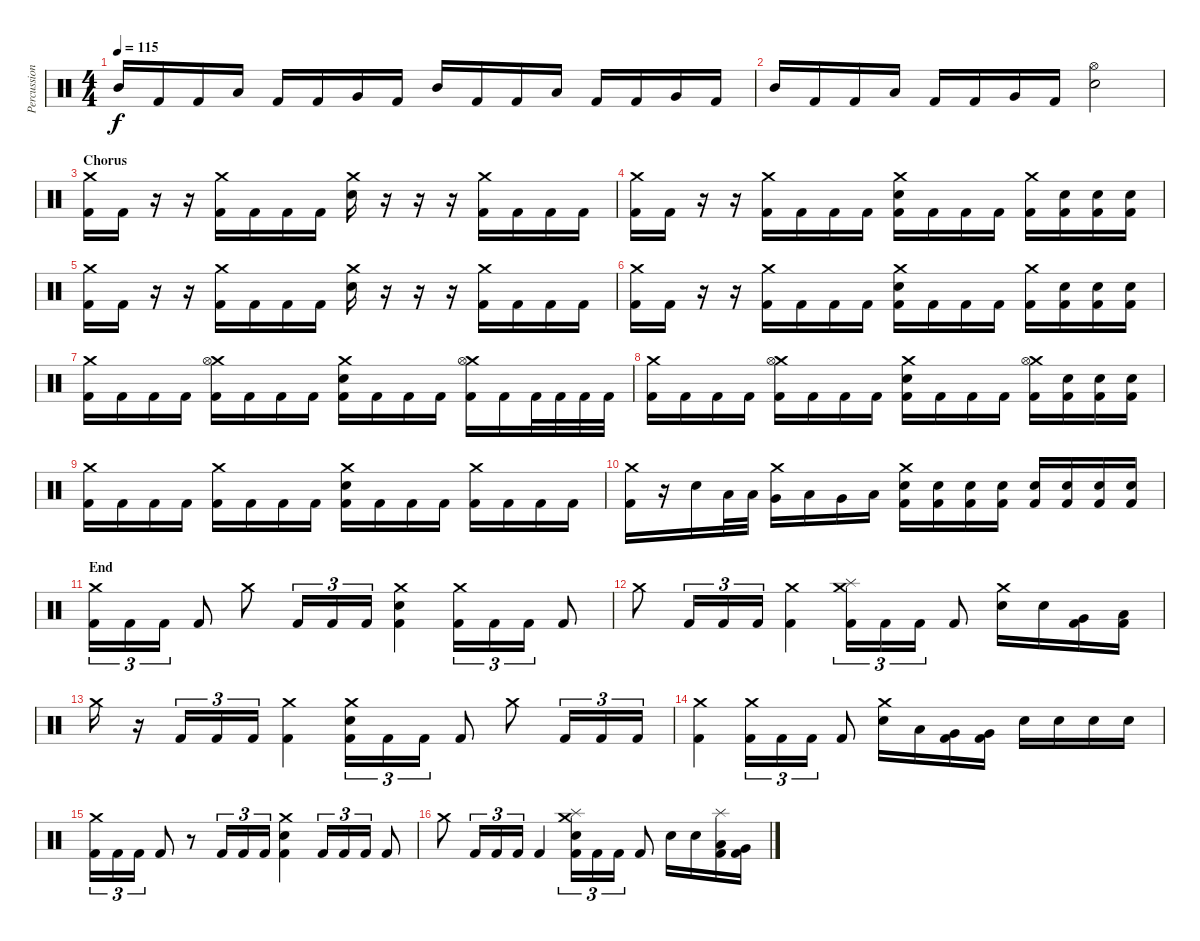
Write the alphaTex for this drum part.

\track ("Percussion" "Percussion") {instrument percussion}
\staff {score}
\articulation defaults
\ts (4 4)
\tempo 115
\clef neutral
\ks c "Mid Tom (hit)".16{dy f} "Kick (hit) 2".16 "Kick (hit) 2".16 "Low Tom (hit)".16 "Kick (hit) 2".16 "Kick (hit) 2".16 "Very Low Tom (hit)".16 "Kick (hit) 2".16 "Mid Tom (hit)".16 "Kick (hit) 2".16 "Kick (hit) 2".16 "Low Tom (hit)".16 "Kick (hit) 2".16 "Kick (hit) 2".16 "Very Low Tom (hit)".16 "Kick (hit) 2".16
|
"Mid Tom (hit)".16 "Kick (hit) 2".16 "Kick (hit) 2".16 "Low Tom (hit)".16 "Kick (hit) 2".16 "Kick (hit) 2".16 "Very Low Tom (hit)".16 "Kick (hit) 2".16 ("Hi-Hat (open)" "Electric Snare (hit)").2 |
\section ("" "Chorus")
("Crash medium (hit)" "Kick (hit) 2").16 "Kick (hit) 2".16 r.16 r.16 ("Crash medium (hit)" "Kick (hit) 2").16 "Kick (hit) 2".16 "Kick (hit) 2".16 "Kick (hit) 2".16 ("Crash medium (hit)" "Electric Snare (hit)").16 r.16 r.16 r.16 ("Crash medium (hit)" "Kick (hit) 2").16 "Kick (hit) 2".16 "Kick (hit) 2".16 "Kick (hit) 2".16 |
("Crash medium (hit)" "Kick (hit) 2").16 "Kick (hit) 2".16 r.16 r.16 ("Crash medium (hit)" "Kick (hit) 2").16 "Kick (hit) 2".16 "Kick (hit) 2".16 "Kick (hit) 2".16 ("Crash medium (hit)" "Electric Snare (hit)" "Kick (hit) 2").16 "Kick (hit) 2".16 "Kick (hit) 2".16 "Kick (hit) 2".16 ("Crash medium (hit)" "Kick (hit) 2").16 ("Electric Snare (hit)" "Kick (hit) 2").16 ("Electric Snare (hit)" "Kick (hit) 2").16 ("Electric Snare (hit)" "Kick (hit) 2").16 |
("Crash medium (hit)" "Kick (hit) 2").16 "Kick (hit) 2".16 r.16 r.16 ("Crash medium (hit)" "Kick (hit) 2").16 "Kick (hit) 2".16 "Kick (hit) 2".16 "Kick (hit) 2".16 ("Crash medium (hit)" "Electric Snare (hit)").16 r.16 r.16 r.16 ("Crash medium (hit)" "Kick (hit) 2").16 "Kick (hit) 2".16 "Kick (hit) 2".16 "Kick (hit) 2".16 |
("Crash medium (hit)" "Kick (hit) 2").16 "Kick (hit) 2".16 r.16 r.16 ("Crash medium (hit)" "Kick (hit) 2").16 "Kick (hit) 2".16 "Kick (hit) 2".16 "Kick (hit) 2".16 ("Crash medium (hit)" "Electric Snare (hit)" "Kick (hit) 2").16 "Kick (hit) 2".16 "Kick (hit) 2".16 "Kick (hit) 2".16 ("Crash medium (hit)" "Kick (hit) 2").16 ("Electric Snare (hit)" "Kick (hit) 2").16 ("Electric Snare (hit)" "Kick (hit) 2").16 ("Electric Snare (hit)" "Kick (hit) 2").16 |
("Crash medium (hit)" "Kick (hit) 2").16 "Kick (hit) 2".16 "Kick (hit) 2".16 "Kick (hit) 2".16 ("Crash medium (hit)" "Hi-Hat (open)" "Kick (hit) 2").16 "Kick (hit) 2".16 "Kick (hit) 2".16 "Kick (hit) 2".16 ("Crash medium (hit)" "Electric Snare (hit)" "Kick (hit) 2").16 "Kick (hit) 2".16 "Kick (hit) 2".16 "Kick (hit) 2".16 ("Crash medium (hit)" "Hi-Hat (open)" "Kick (hit) 2").16 "Kick (hit) 2".16 "Kick (hit) 2".32 "Kick (hit) 2".32 "Kick (hit) 2".32 "Kick (hit) 2".32 |
("Crash medium (hit)" "Kick (hit) 2").16 "Kick (hit) 2".16 "Kick (hit) 2".16 "Kick (hit) 2".16 ("Crash medium (hit)" "Hi-Hat (open)" "Kick (hit) 2").16 "Kick (hit) 2".16 "Kick (hit) 2".16 "Kick (hit) 2".16 ("Crash medium (hit)" "Electric Snare (hit)" "Kick (hit) 2").16 "Kick (hit) 2".16 "Kick (hit) 2".16 "Kick (hit) 2".16 ("Crash medium (hit)" "Hi-Hat (open)" "Kick (hit) 2").16 ("Electric Snare (hit)" "Kick (hit) 2").16 ("Electric Snare (hit)" "Kick (hit) 2").16 ("Electric Snare (hit)" "Kick (hit) 2").16 |
("Crash medium (hit)" "Kick (hit) 2").16 "Kick (hit) 2".16 "Kick (hit) 2".16 "Kick (hit) 2".16 ("Crash medium (hit)" "Kick (hit) 2").16 "Kick (hit) 2".16 "Kick (hit) 2".16 "Kick (hit) 2".16 ("Crash medium (hit)" "Electric Snare (hit)" "Kick (hit) 2").16 "Kick (hit) 2".16 "Kick (hit) 2".16 "Kick (hit) 2".16 ("Crash medium (hit)" "Kick (hit) 2").16 "Kick (hit) 2".16 "Kick (hit) 2".16 "Kick (hit) 2".16 |
("Crash medium (hit)" "Kick (hit) 2").16 r.16 "Electric Snare (hit)".16 "Low Tom (hit)".32 "Low Tom (hit)".32 ("Crash medium (hit)" "Very Low Tom (hit)").16 "Low Tom (hit)".16 "Very Low Tom (hit)".16 "Low Floor Tom (hit)".16 ("Crash medium (hit)" "Electric Snare (hit)" "Kick (hit) 2").16 ("Electric Snare (hit)" "Kick (hit) 2").16 ("Electric Snare (hit)" "Kick (hit) 2").16 ("Electric Snare (hit)" "Kick (hit) 2").16 ("Electric Snare (hit)" "Kick (hit) 2").16 ("Electric Snare (hit)" "Kick (hit) 2").16 ("Electric Snare (hit)" "Kick (hit) 2").16 ("Electric Snare (hit)" "Kick (hit) 2").16 |
\section ("" "End")
("Crash medium (hit)" "Kick (hit) 2").16{tu (3 2)} "Kick (hit) 2".16{tu (3 2)} "Kick (hit) 2".16{tu (3 2)} "Kick (hit) 2".8 "Crash medium (hit)".8 "Kick (hit) 2".16{tu (3 2)} "Kick (hit) 2".16{tu (3 2)} "Kick (hit) 2".16{tu (3 2)} ("Crash medium (hit)" "Electric Snare (hit)" "Kick (hit) 2").4 ("Crash medium (hit)" "Kick (hit) 2").16{tu (3 2)} "Kick (hit) 2".16{tu (3 2)} "Kick (hit) 2".16{tu (3 2)} "Kick (hit) 2".8 |
"Crash medium (hit)".8 "Kick (hit) 2".16{tu (3 2)} "Kick (hit) 2".16{tu (3 2)} "Kick (hit) 2".16{tu (3 2)} ("Crash medium (hit)" "Kick (hit) 2").4 ("Crash medium (hit)" "Splash (hit)" "Kick (hit) 2").16{tu (3 2)} "Kick (hit) 2".16{tu (3 2)} "Kick (hit) 2".16{tu (3 2)} "Kick (hit) 2".8 ("Crash medium (hit)" "Electric Snare (hit)").16 "Electric Snare (hit)".16 ("Very Low Tom (hit)" "Kick (hit) 2").16 ("Low Tom (hit)" "Kick (hit) 2").16 |
"Crash medium (hit)".16 r.16 "Kick (hit) 2".16{tu (3 2)} "Kick (hit) 2".16{tu (3 2)} "Kick (hit) 2".16{tu (3 2)} ("Crash medium (hit)" "Kick (hit) 2").4 ("Crash medium (hit)" "Electric Snare (hit)" "Kick (hit) 2").16{tu (3 2)} "Kick (hit) 2".16{tu (3 2)} "Kick (hit) 2".16{tu (3 2)} "Kick (hit) 2".8 "Crash medium (hit)".8 "Kick (hit) 2".16{tu (3 2)} "Kick (hit) 2".16{tu (3 2)} "Kick (hit) 2".16{tu (3 2)} |
("Crash medium (hit)" "Kick (hit) 2").4 ("Crash medium (hit)" "Kick (hit) 2").16{tu (3 2)} "Kick (hit) 2".16{tu (3 2)} "Kick (hit) 2".16{tu (3 2)} "Kick (hit) 2".8 ("Crash medium (hit)" "Electric Snare (hit)").16 "Low Tom (hit)".16 ("Very Low Tom (hit)" "Kick (hit) 2").16 ("Very Low Tom (hit)" "Kick (hit) 2").16 "Electric Snare (hit)".16 "Electric Snare (hit)".16 "Electric Snare (hit)".16 "Electric Snare (hit)".16 |
("Crash medium (hit)" "Kick (hit) 2").16{tu (3 2)} "Kick (hit) 2".16{tu (3 2)} "Kick (hit) 2".16{tu (3 2)} "Kick (hit) 2".8 r.8 "Kick (hit) 2".16{tu (3 2)} "Kick (hit) 2".16{tu (3 2)} "Kick (hit) 2".16{tu (3 2)} ("Crash medium (hit)" "Electric Snare (hit)" "Kick (hit) 2").4 "Kick (hit) 2".16{tu (3 2)} "Kick (hit) 2".16{tu (3 2)} "Kick (hit) 2".16{tu (3 2)} "Kick (hit) 2".8 |
"Crash medium (hit)".8 "Kick (hit) 2".16{tu (3 2)} "Kick (hit) 2".16{tu (3 2)} "Kick (hit) 2".16{tu (3 2)} "Kick (hit) 2".4 ("Crash medium (hit)" "Splash (hit)" "Electric Snare (hit)" "Kick (hit) 2").16{tu (3 2)} "Kick (hit) 2".16{tu (3 2)} "Kick (hit) 2".16{tu (3 2)} "Kick (hit) 2".8 "Electric Snare (hit)".16 "Electric Snare (hit)".16 ("Splash (hit)" "Low Tom (hit)" "Kick (hit) 2").16 ("Very Low Tom (hit)" "Kick (hit) 2").16
